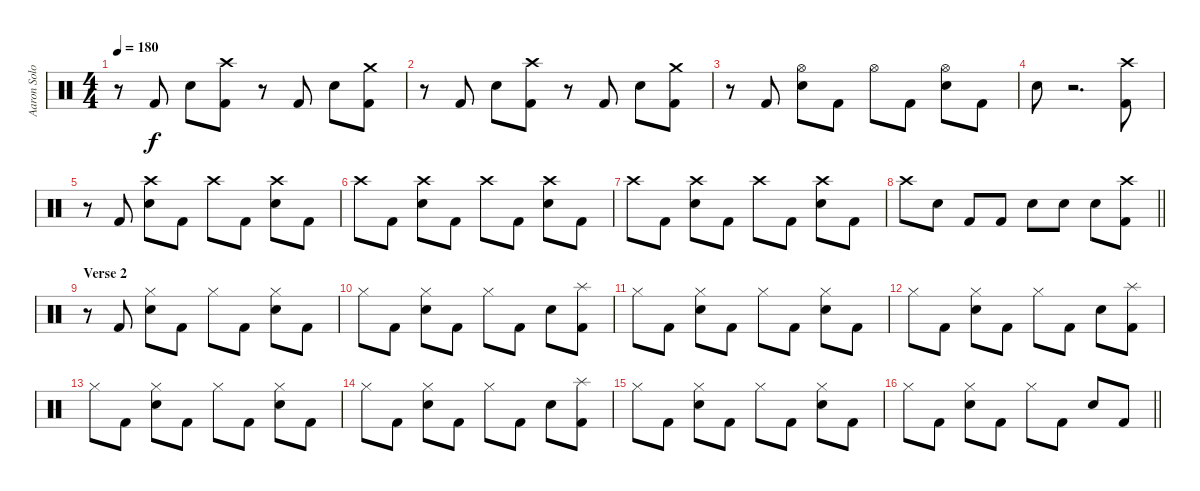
\track ("Aaron Solowoniuk" "Aaron Solo") {instrument percussion}
\staff {score}
\articulation defaults
\ts (4 4)
\tempo 180
\clef neutral
\ks c
r.8{dy f} "Kick (hit) 2".8 "Electric Snare (hit)".8 ("Crash high (hit)" "Kick (hit) 2").8 r.8 "Kick (hit) 2".8 "Electric Snare (hit)".8 ("Crash medium (hit)" "Kick (hit) 2").8 |
r.8 "Kick (hit) 2".8 "Electric Snare (hit)".8 ("Crash high (hit)" "Kick (hit) 2").8 r.8 "Kick (hit) 2".8 "Electric Snare (hit)".8 ("Crash medium (hit)" "Kick (hit) 2").8 |
r.8 "Kick (hit) 2".8 ("Hi-Hat (open)" "Electric Snare (hit)").8 "Kick (hit) 2".8 "Hi-Hat (open)".8 "Kick (hit) 2".8 ("Hi-Hat (open)" "Electric Snare (hit)").8 "Kick (hit) 2".8 |
"Electric Snare (hit)".8 r.2{d} ("Crash high (hit)" "Kick (hit) 2").8 |
r.8 "Kick (hit) 2".8 ("Crash high (hit)" "Electric Snare (hit)").8 "Kick (hit) 2".8 "Crash high (hit)".8 "Kick (hit) 2".8 ("Crash high (hit)" "Electric Snare (hit)").8 "Kick (hit) 2".8 |
"Crash high (hit)".8 "Kick (hit) 2".8 ("Crash high (hit)" "Electric Snare (hit)").8 "Kick (hit) 2".8 "Crash high (hit)".8 "Kick (hit) 2".8 ("Crash high (hit)" "Electric Snare (hit)").8 "Kick (hit) 2".8 |
"Crash high (hit)".8 "Kick (hit) 2".8 ("Crash high (hit)" "Electric Snare (hit)").8 "Kick (hit) 2".8 "Crash high (hit)".8 "Kick (hit) 2".8 ("Crash high (hit)" "Electric Snare (hit)").8 "Kick (hit) 2".8 |
\barLineRight lightlight "Crash high (hit)".8 "Electric Snare (hit)".8 "Kick (hit) 2".8 "Kick (hit) 2".8 "Electric Snare (hit)".8 "Electric Snare (hit)".8 "Electric Snare (hit)".8
("Crash high (hit)" "Kick (hit) 2").8 |
\section ("" "Verse 2")
r.8 "Kick (hit) 2".8 ("Hi-Hat (closed)" "Electric Snare (hit)").8 "Kick (hit) 2".8 "Hi-Hat (closed)".8 "Kick (hit) 2".8 ("Hi-Hat (closed)" "Electric Snare (hit)").8 "Kick (hit) 2".8 |
"Hi-Hat (closed)".8 "Kick (hit) 2".8 ("Hi-Hat (closed)" "Electric Snare (hit)").8 "Kick (hit) 2".8 "Hi-Hat (closed)".8 "Kick (hit) 2".8 "Electric Snare (hit)".8 ("Splash (hit)" "Kick (hit) 2").8 |
"Hi-Hat (closed)".8 "Kick (hit) 2".8 ("Hi-Hat (closed)" "Electric Snare (hit)").8 "Kick (hit) 2".8 "Hi-Hat (closed)".8 "Kick (hit) 2".8 ("Hi-Hat (closed)" "Electric Snare (hit)").8 "Kick (hit) 2".8 |
"Hi-Hat (closed)".8 "Kick (hit) 2".8 ("Hi-Hat (closed)" "Electric Snare (hit)").8 "Kick (hit) 2".8 "Hi-Hat (closed)".8 "Kick (hit) 2".8 "Electric Snare (hit)".8 ("Splash (hit)" "Kick (hit) 2").8 |
"Hi-Hat (closed)".8 "Kick (hit) 2".8 ("Hi-Hat (closed)" "Electric Snare (hit)").8 "Kick (hit) 2".8 "Hi-Hat (closed)".8 "Kick (hit) 2".8 ("Hi-Hat (closed)" "Electric Snare (hit)").8 "Kick (hit) 2".8 |
"Hi-Hat (closed)".8 "Kick (hit) 2".8 ("Hi-Hat (closed)" "Electric Snare (hit)").8 "Kick (hit) 2".8 "Hi-Hat (closed)".8 "Kick (hit) 2".8 "Electric Snare (hit)".8 ("Splash (hit)" "Kick (hit) 2").8 |
"Hi-Hat (closed)".8 "Kick (hit) 2".8 ("Hi-Hat (closed)" "Electric Snare (hit)").8 "Kick (hit) 2".8 "Hi-Hat (closed)".8 "Kick (hit) 2".8 ("Hi-Hat (closed)" "Electric Snare (hit)").8 "Kick (hit) 2".8 |
\barLineRight lightlight "Hi-Hat (closed)".8 "Kick (hit) 2".8
("Hi-Hat (closed)" "Electric Snare (hit)").8 "Kick (hit) 2".8 "Hi-Hat (closed)".8 "Kick (hit) 2".8 "Electric Snare (hit)".8 "Kick (hit) 2".8
